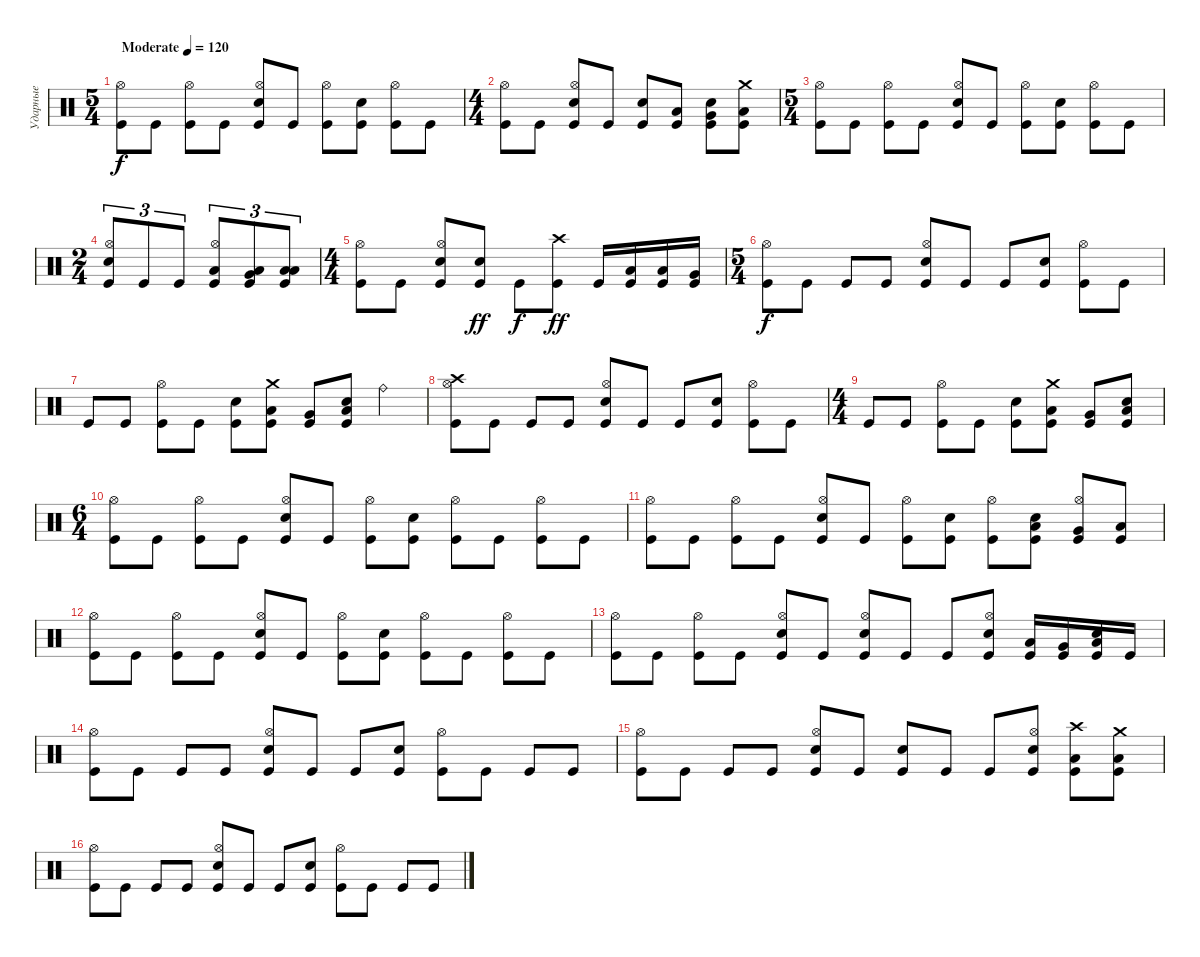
\track ("Ударные" "Ударные") {instrument percussion}
\staff {score}
\articulation defaults
\ts (5 4)
\tempo (120 "Moderate")
\clef neutral
\ks c
("Kick (hit)" "Hi-Hat (open)").8{dy f} "Kick (hit)".8 ("Kick (hit)" "Hi-Hat (open)").8 "Kick (hit)".8 ("Kick (hit)" "Hi-Hat (open)" "Snare (hit) 2").8 "Kick (hit)".8 ("Kick (hit)" "Hi-Hat (open)").8 ("Kick (hit)" "Snare (hit) 2").8 ("Kick (hit)" "Hi-Hat (open)").8 "Kick (hit)".8 |
\ts (4 4)
("Kick (hit)" "Hi-Hat (open)").8 "Kick (hit)".8 ("Kick (hit)" "Hi-Hat (open)" "Snare (hit) 2").8 "Kick (hit)".8 ("Kick (hit)" "Snare (hit) 2").8 ("Kick (hit)" "Low Tom (hit)").8 ("Kick (hit)" "Very Low Tom (hit)" "Snare (hit) 2").8 ("Kick (hit)" "Low Floor Tom (hit)" "Crash medium (hit)").8 |
\ts (5 4)
("Kick (hit)" "Hi-Hat (open)").8 "Kick (hit)".8 ("Kick (hit)" "Hi-Hat (open)").8 "Kick (hit)".8 ("Kick (hit)" "Hi-Hat (open)" "Snare (hit) 2").8 "Kick (hit)".8 ("Kick (hit)" "Hi-Hat (open)").8 ("Kick (hit)" "Snare (hit) 2").8 ("Kick (hit)" "Hi-Hat (open)").8 "Kick (hit)".8 |
\ts (2 4)
("Kick (hit)" "Snare (hit) 2" "Hi-Hat (open)").8{tu (3 2)} "Kick (hit)".8{tu (3 2)} "Kick (hit)".8{tu (3 2)} ("Kick (hit)" "Low Floor Tom (hit)" "Hi-Hat (open)").8{tu (3 2)} ("Kick (hit)" "Very Low Tom (hit)" "Low Floor Tom (hit)").8{tu (3 2)} ("Kick (hit)" "Low Tom (hit)" "Low Floor Tom (hit)").8{tu (3 2)} |
\ts (4 4)
("Kick (hit)" "Hi-Hat (open)").8 "Kick (hit)".8 ("Kick (hit)" "Hi-Hat (open)" "Snare (hit) 2").8 ("Kick (hit)" "Snare (hit) 2").8{dy ff} "Kick (hit)".8{dy f} ("Kick (hit)" "Crash high (hit)").8{dy ff} "Kick (hit)".16 ("Kick (hit)" "Low Tom (hit)").16 ("Kick (hit)" "Low Tom (hit)").16 ("Kick (hit)" "Very Low Tom (hit)").16 |
\ts (5 4)
("Kick (hit)" "Hi-Hat (open)").8{dy f} "Kick (hit)".8 "Kick (hit)".8 "Kick (hit)".8 ("Kick (hit)" "Snare (hit) 2" "Hi-Hat (open)").8 "Kick (hit)".8 "Kick (hit)".8 ("Kick (hit)" "Snare (hit) 2").8 ("Kick (hit)" "Hi-Hat (open)").8 "Kick (hit)".8 |
"Kick (hit)".8 "Kick (hit)".8 ("Kick (hit)" "Hi-Hat (open)").8 "Kick (hit)".8 ("Kick (hit)" "Snare (hit) 2").8 ("Kick (hit)" "Low Tom (hit)" "Crash medium (hit)").8 ("Kick (hit)" "Very Low Tom (hit)").8 ("Kick (hit)" "Low Floor Tom (hit)" "Snare (hit) 2").8 "Ride (bell)".4 |
("Kick (hit)" "Crash high (hit)" "Hi-Hat (open)").8 "Kick (hit)".8 "Kick (hit)".8 "Kick (hit)".8 ("Kick (hit)" "Snare (hit) 2" "Hi-Hat (open)").8 "Kick (hit)".8 "Kick (hit)".8 ("Kick (hit)" "Snare (hit) 2").8 ("Kick (hit)" "Hi-Hat (open)").8 "Kick (hit)".8 |
\ts (4 4)
"Kick (hit)".8 "Kick (hit)".8 ("Kick (hit)" "Hi-Hat (open)").8 "Kick (hit)".8 ("Kick (hit)" "Snare (hit) 2").8 ("Kick (hit)" "Low Tom (hit)" "Crash medium (hit)").8 ("Kick (hit)" "Very Low Tom (hit)").8 ("Kick (hit)" "Low Floor Tom (hit)" "Snare (hit) 2").8 |
\ts (6 4)
("Kick (hit)" "Hi-Hat (open)").8 "Kick (hit)".8 ("Kick (hit)" "Hi-Hat (open)").8 "Kick (hit)".8 ("Kick (hit)" "Hi-Hat (open)" "Snare (hit) 2").8 "Kick (hit)".8 ("Kick (hit)" "Hi-Hat (open)").8 ("Kick (hit)" "Snare (hit) 2").8 ("Kick (hit)" "Hi-Hat (open)").8 "Kick (hit)".8 ("Kick (hit)" "Hi-Hat (open)").8 "Kick (hit)".8 |
("Kick (hit)" "Hi-Hat (open)").8 "Kick (hit)".8 ("Kick (hit)" "Hi-Hat (open)").8 "Kick (hit)".8 ("Kick (hit)" "Hi-Hat (open)" "Snare (hit) 2").8 "Kick (hit)".8 ("Kick (hit)" "Hi-Hat (open)").8 ("Kick (hit)" "Snare (hit) 2").8 ("Kick (hit)" "Hi-Hat (open)").8 ("Kick (hit)" "Low Tom (hit)" "Snare (hit) 2").8 ("Kick (hit)" "Very Low Tom (hit)" "Hi-Hat (open)").8 ("Kick (hit)" "Low Floor Tom (hit)").8 |
("Kick (hit)" "Hi-Hat (open)").8 "Kick (hit)".8 ("Kick (hit)" "Hi-Hat (open)").8 "Kick (hit)".8 ("Kick (hit)" "Hi-Hat (open)" "Snare (hit) 2").8 "Kick (hit)".8 ("Kick (hit)" "Hi-Hat (open)").8 ("Kick (hit)" "Snare (hit) 2").8 ("Kick (hit)" "Hi-Hat (open)").8 "Kick (hit)".8 ("Kick (hit)" "Hi-Hat (open)").8 "Kick (hit)".8 |
("Kick (hit)" "Hi-Hat (open)").8 "Kick (hit)".8 ("Kick (hit)" "Hi-Hat (open)").8 "Kick (hit)".8 ("Kick (hit)" "Hi-Hat (open)" "Snare (hit) 2").8 "Kick (hit)".8 ("Kick (hit)" "Hi-Hat (open)" "Snare (hit) 2").8 "Kick (hit)".8 "Kick (hit)".8 ("Kick (hit)" "Hi-Hat (open)" "Snare (hit) 2").8 ("Kick (hit)" "Low Tom (hit)").16 ("Kick (hit)" "Very Low Tom (hit)").16 ("Kick (hit)" "Low Floor Tom (hit)" "Snare (hit) 2").16 "Kick (hit)".16 |
("Kick (hit)" "Hi-Hat (open)").8 "Kick (hit)".8 "Kick (hit)".8 "Kick (hit)".8 ("Kick (hit)" "Hi-Hat (open)" "Snare (hit) 2").8 "Kick (hit)".8 "Kick (hit)".8 ("Kick (hit)" "Snare (hit) 2").8 ("Kick (hit)" "Hi-Hat (open)").8 "Kick (hit)".8 "Kick (hit)".8 "Kick (hit)".8 |
("Kick (hit)" "Hi-Hat (open)").8 "Kick (hit)".8 "Kick (hit)".8 "Kick (hit)".8 ("Kick (hit)" "Hi-Hat (open)" "Snare (hit) 2").8 "Kick (hit)".8 ("Kick (hit)" "Snare (hit) 2").8 "Kick (hit)".8 "Kick (hit)".8 ("Kick (hit)" "Hi-Hat (open)" "Snare (hit) 2").8 ("Kick (hit)" "Low Floor Tom (hit)" "Crash high (hit)").8 ("Kick (hit)" "Low Floor Tom (hit)" "Crash medium (hit)").8 |
("Kick (hit)" "Hi-Hat (open)").8 "Kick (hit)".8 "Kick (hit)".8 "Kick (hit)".8 ("Kick (hit)" "Hi-Hat (open)" "Snare (hit) 2").8 "Kick (hit)".8 "Kick (hit)".8 ("Kick (hit)" "Snare (hit) 2").8 ("Kick (hit)" "Hi-Hat (open)").8 "Kick (hit)".8 "Kick (hit)".8 "Kick (hit)".8
